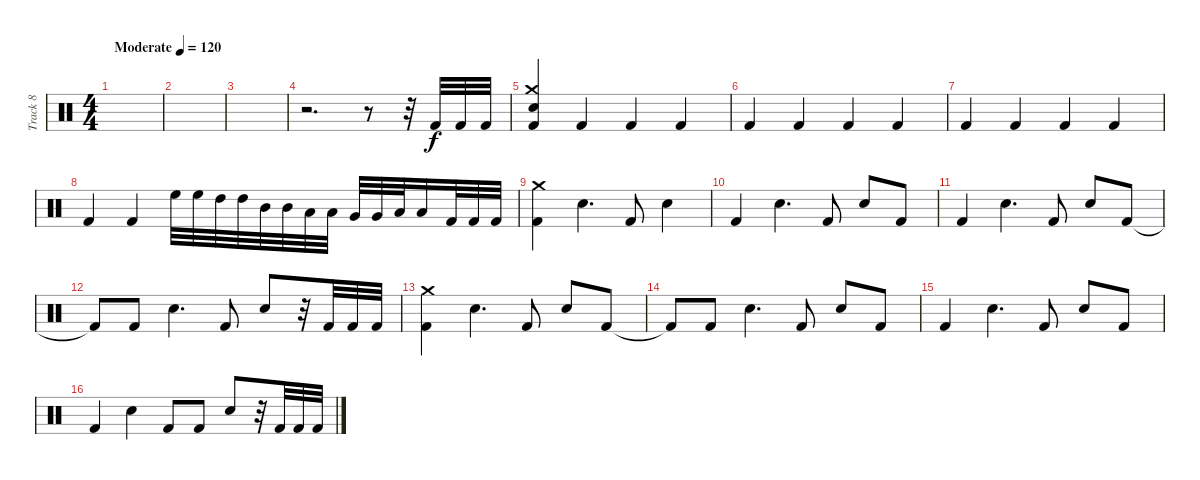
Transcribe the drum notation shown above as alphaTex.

\track ("Track 8" "Track 8") {instrument percussion}
\staff {score}
\articulation defaults
\ts (4 4)
\tempo (120 "Moderate")
\clef neutral
\ks c
|
|
|
r.2{d} r.8 r.32 "Kick (hit) 2".32 "Kick (hit) 2".32 "Kick (hit) 2".32 |
("Crash medium (hit)" "Electric Snare (hit)" "Kick (hit) 2").4 "Kick (hit) 2".4 "Kick (hit) 2".4 "Kick (hit) 2".4 |
"Kick (hit) 2".4 "Kick (hit) 2".4 "Kick (hit) 2".4 "Kick (hit) 2".4 |
"Kick (hit) 2".4 "Kick (hit) 2".4 "Kick (hit) 2".4 "Kick (hit) 2".4 |
"Kick (hit) 2".4 "Kick (hit) 2".4 "High Floor Tom (hit)".32 "High Floor Tom (hit)".32 "High Tom (hit)".32 "High Tom (hit)".32 "Mid Tom (hit)".32 "Mid Tom (hit)".32 "Low Tom (hit)".32 "Low Tom (hit)".32 "Very Low Tom (hit)".32 "Very Low Tom (hit)".32 "Low Floor Tom (hit)".32 "Low Floor Tom (hit)".16 "Kick (hit) 2".32 "Kick (hit) 2".32 "Kick (hit) 2".32 |
("Crash medium (hit)" "Kick (hit) 2").4 "Electric Snare (hit)".4{d} "Kick (hit) 2".8 "Electric Snare (hit)".4 |
"Kick (hit) 2".4 "Electric Snare (hit)".4{d} "Kick (hit) 2".8 "Electric Snare (hit)".8 "Kick (hit) 2".8 |
"Kick (hit) 2".4 "Electric Snare (hit)".4{d} "Kick (hit) 2".8 "Electric Snare (hit)".8 "Kick (hit) 2".8 |
"Kick (hit) 2"{t}.8 "Kick (hit) 2".8 "Electric Snare (hit)".4{d} "Kick (hit) 2".8 "Electric Snare (hit)".8 r.32 "Kick (hit) 2".32 "Kick (hit) 2".32 "Kick (hit) 2".32 |
("Crash medium (hit)" "Kick (hit) 2").4 "Electric Snare (hit)".4{d} "Kick (hit) 2".8 "Electric Snare (hit)".8 "Kick (hit) 2".8 |
"Kick (hit) 2"{t}.8 "Kick (hit) 2".8 "Electric Snare (hit)".4{d} "Kick (hit) 2".8 "Electric Snare (hit)".8 "Kick (hit) 2".8 |
"Kick (hit) 2".4 "Electric Snare (hit)".4{d} "Kick (hit) 2".8 "Electric Snare (hit)".8 "Kick (hit) 2".8 |
"Kick (hit) 2".4 "Electric Snare (hit)".4 "Kick (hit) 2".8 "Kick (hit) 2".8 "Electric Snare (hit)".8 r.32 "Kick (hit) 2".32 "Kick (hit) 2".32 "Kick (hit) 2".32
